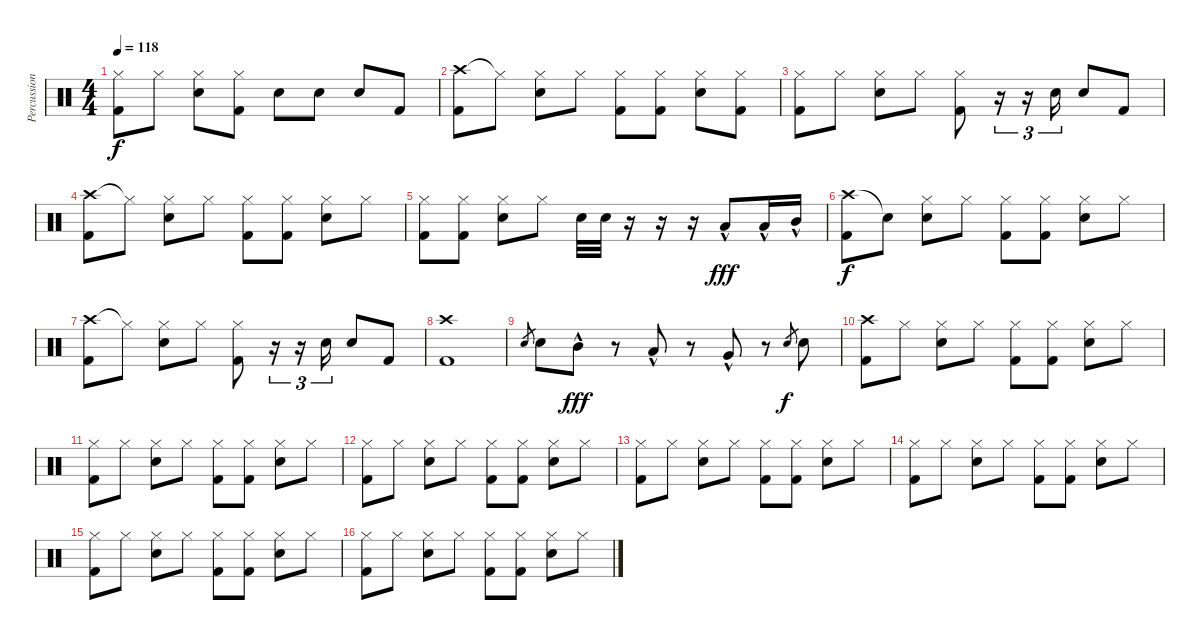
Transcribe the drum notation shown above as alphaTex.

\track ("Percussion" "Percussion") {instrument percussion}
\staff {score}
\articulation defaults
\ts (4 4)
\tempo 118
\clef neutral
\ks c
("Hi-Hat (closed)" "Kick (hit) 2").8{dy f} "Hi-Hat (closed)".8 ("Hi-Hat (closed)" "Snare (hit) 2").8 ("Hi-Hat (closed)" "Kick (hit) 2").8 "Snare (hit) 2".8 "Snare (hit) 2".8 "Snare (hit) 2".8 "Kick (hit) 2".8 |
("Crash high (hit)" "Kick (hit) 2").8 "Hi-Hat (closed)"{t}.8 ("Hi-Hat (closed)" "Snare (hit) 2").8 "Hi-Hat (closed)".8 ("Hi-Hat (closed)" "Kick (hit) 2").8 ("Hi-Hat (closed)" "Kick (hit) 2").8 ("Hi-Hat (closed)" "Snare (hit) 2").8 ("Hi-Hat (closed)" "Kick (hit) 2").8 |
("Hi-Hat (closed)" "Kick (hit) 2").8 "Hi-Hat (closed)".8 ("Hi-Hat (closed)" "Snare (hit) 2").8 "Hi-Hat (closed)".8 ("Hi-Hat (closed)" "Kick (hit) 2").8 r.16{tu (3 2)} r.16{tu (3 2)} "Snare (hit) 2".16{tu (3 2)} "Snare (hit) 2".8 "Kick (hit) 2".8 |
("Crash high (hit)" "Kick (hit) 2").8 "Hi-Hat (closed)"{t}.8 ("Hi-Hat (closed)" "Snare (hit) 2").8 "Hi-Hat (closed)".8 ("Hi-Hat (closed)" "Kick (hit) 2").8 ("Hi-Hat (closed)" "Kick (hit) 2").8 ("Hi-Hat (closed)" "Snare (hit) 2").8 "Hi-Hat (closed)".8 |
("Hi-Hat (closed)" "Kick (hit) 2").8 ("Hi-Hat (closed)" "Kick (hit) 2").8 ("Hi-Hat (closed)" "Snare (hit) 2").8 "Hi-Hat (closed)".8 "Snare (hit) 2".32 "Snare (hit) 2".32 r.16 r.16 r.16 "Low Tom (hit)"{hac}.8{dy fff} "Low Tom (hit)"{hac}.16 "Mid Tom (hit)"{hac}.16 |
("Crash high (hit)" "Kick (hit) 2").8{dy f} "Snare (hit)"{t}.8 ("Hi-Hat (closed)" "Snare (hit) 2").8 "Hi-Hat (closed)".8 ("Hi-Hat (closed)" "Kick (hit) 2").8 ("Hi-Hat (closed)" "Kick (hit) 2").8 ("Hi-Hat (closed)" "Snare (hit) 2").8 "Hi-Hat (closed)".8 |
("Crash high (hit)" "Kick (hit) 2").8 "Hi-Hat (closed)"{t}.8 ("Hi-Hat (closed)" "Snare (hit) 2").8 "Hi-Hat (closed)".8 ("Hi-Hat (closed)" "Kick (hit) 2").8 r.16{tu (3 2)} r.16{tu (3 2)} "Snare (hit) 2".16{tu (3 2)} "Snare (hit) 2".8 "Kick (hit) 2".8 |
("Crash high (hit)" "Kick (hit) 2").1 |
"Snare (hit) 2".8{gr} "Snare (hit) 2".8 "Mid Tom (hit)"{hac}.8{dy fff balance 15} r.8 "Low Tom (hit)"{hac}.8{balance 10} r.8 "Very Low Tom (hit)"{hac}.8{balance 0} r.8 "Snare (hit) 2".8{gr dy f} "Snare (hit) 2".8{balance 8} |
("Crash high (hit)" "Kick (hit) 2").8 "Hi-Hat (closed)".8 ("Hi-Hat (closed)" "Snare (hit) 2").8 "Hi-Hat (closed)".8 ("Hi-Hat (closed)" "Kick (hit) 2").8 ("Hi-Hat (closed)" "Kick (hit) 2").8 ("Hi-Hat (closed)" "Snare (hit) 2").8 "Hi-Hat (closed)".8 |
("Hi-Hat (closed)" "Kick (hit) 2").8 "Hi-Hat (closed)".8 ("Hi-Hat (closed)" "Snare (hit) 2").8 "Hi-Hat (closed)".8 ("Hi-Hat (closed)" "Kick (hit) 2").8 ("Hi-Hat (closed)" "Kick (hit) 2").8 ("Hi-Hat (closed)" "Snare (hit) 2").8 "Hi-Hat (closed)".8 |
("Hi-Hat (closed)" "Kick (hit) 2").8 "Hi-Hat (closed)".8 ("Hi-Hat (closed)" "Snare (hit) 2").8 "Hi-Hat (closed)".8 ("Hi-Hat (closed)" "Kick (hit) 2").8 ("Hi-Hat (closed)" "Kick (hit) 2").8 ("Hi-Hat (closed)" "Snare (hit) 2").8 "Hi-Hat (closed)".8 |
("Hi-Hat (closed)" "Kick (hit) 2").8 "Hi-Hat (closed)".8 ("Hi-Hat (closed)" "Snare (hit) 2").8 "Hi-Hat (closed)".8 ("Hi-Hat (closed)" "Kick (hit) 2").8 ("Hi-Hat (closed)" "Kick (hit) 2").8 ("Hi-Hat (closed)" "Snare (hit) 2").8 "Hi-Hat (closed)".8 |
("Hi-Hat (closed)" "Kick (hit) 2").8 "Hi-Hat (closed)".8 ("Hi-Hat (closed)" "Snare (hit) 2").8 "Hi-Hat (closed)".8 ("Hi-Hat (closed)" "Kick (hit) 2").8 ("Hi-Hat (closed)" "Kick (hit) 2").8 ("Hi-Hat (closed)" "Snare (hit) 2").8 "Hi-Hat (closed)".8 |
("Hi-Hat (closed)" "Kick (hit) 2").8 "Hi-Hat (closed)".8 ("Hi-Hat (closed)" "Snare (hit) 2").8 "Hi-Hat (closed)".8 ("Hi-Hat (closed)" "Kick (hit) 2").8 ("Hi-Hat (closed)" "Kick (hit) 2").8 ("Hi-Hat (closed)" "Snare (hit) 2").8 "Hi-Hat (closed)".8 |
("Hi-Hat (closed)" "Kick (hit) 2").8 "Hi-Hat (closed)".8 ("Hi-Hat (closed)" "Snare (hit) 2").8 "Hi-Hat (closed)".8 ("Hi-Hat (closed)" "Kick (hit) 2").8 ("Hi-Hat (closed)" "Kick (hit) 2").8 ("Hi-Hat (closed)" "Snare (hit) 2").8 "Hi-Hat (closed)".8
